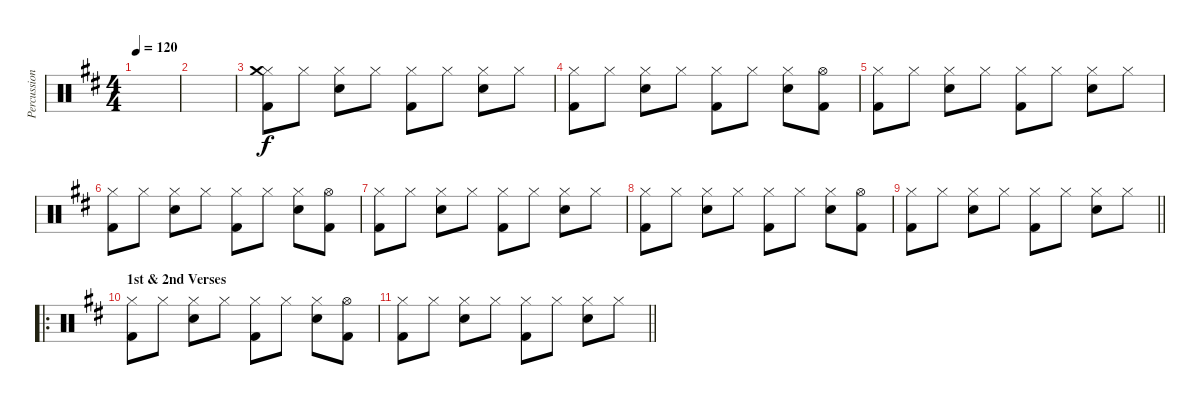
\track ("Percussion" "Percussion") {instrument percussion}
\staff {score}
\articulation defaults
\ts (4 4)
\tempo 120
\clef neutral
\ks d
|
|
("Hi-Hat (closed)" "Crash medium (hit)" "Kick (hit) 2").8 "Hi-Hat (closed)".8 ("Hi-Hat (closed)" "Snare (hit) 2").8 "Hi-Hat (closed)".8 ("Hi-Hat (closed)" "Kick (hit) 2").8 "Hi-Hat (closed)".8 ("Hi-Hat (closed)" "Snare (hit) 2").8 "Hi-Hat (closed)".8 |
("Hi-Hat (closed)" "Kick (hit) 2").8 "Hi-Hat (closed)".8 ("Hi-Hat (closed)" "Snare (hit) 2").8 "Hi-Hat (closed)".8 ("Hi-Hat (closed)" "Kick (hit) 2").8 "Hi-Hat (closed)".8 ("Hi-Hat (closed)" "Snare (hit) 2").8 ("Hi-Hat (open)" "Kick (hit) 2").8 |
("Hi-Hat (closed)" "Kick (hit) 2").8 "Hi-Hat (closed)".8 ("Hi-Hat (closed)" "Snare (hit) 2").8 "Hi-Hat (closed)".8 ("Hi-Hat (closed)" "Kick (hit) 2").8 "Hi-Hat (closed)".8 ("Hi-Hat (closed)" "Snare (hit) 2").8 "Hi-Hat (closed)".8 |
("Hi-Hat (closed)" "Kick (hit) 2").8 "Hi-Hat (closed)".8 ("Hi-Hat (closed)" "Snare (hit) 2").8 "Hi-Hat (closed)".8 ("Hi-Hat (closed)" "Kick (hit) 2").8 "Hi-Hat (closed)".8 ("Hi-Hat (closed)" "Snare (hit) 2").8 ("Hi-Hat (open)" "Kick (hit) 2").8 |
("Hi-Hat (closed)" "Kick (hit) 2").8 "Hi-Hat (closed)".8 ("Hi-Hat (closed)" "Snare (hit) 2").8 "Hi-Hat (closed)".8 ("Hi-Hat (closed)" "Kick (hit) 2").8 "Hi-Hat (closed)".8 ("Hi-Hat (closed)" "Snare (hit) 2").8 "Hi-Hat (closed)".8 |
("Hi-Hat (closed)" "Kick (hit) 2").8 "Hi-Hat (closed)".8 ("Hi-Hat (closed)" "Snare (hit) 2").8 "Hi-Hat (closed)".8 ("Hi-Hat (closed)" "Kick (hit) 2").8 "Hi-Hat (closed)".8 ("Hi-Hat (closed)" "Snare (hit) 2").8 ("Hi-Hat (open)" "Kick (hit) 2").8 |
\barLineRight lightlight
("Hi-Hat (closed)" "Kick (hit) 2").8 "Hi-Hat (closed)".8 ("Hi-Hat (closed)" "Snare (hit) 2").8 "Hi-Hat (closed)".8 ("Hi-Hat (closed)" "Kick (hit) 2").8 "Hi-Hat (closed)".8 ("Hi-Hat (closed)" "Snare (hit) 2").8 "Hi-Hat (closed)".8 |
\ro
\section ("" "1st & 2nd Verses")
("Hi-Hat (closed)" "Kick (hit) 2").8 "Hi-Hat (closed)".8 ("Hi-Hat (closed)" "Snare (hit) 2").8 "Hi-Hat (closed)".8 ("Hi-Hat (closed)" "Kick (hit) 2").8 "Hi-Hat (closed)".8 ("Hi-Hat (closed)" "Snare (hit) 2").8 ("Hi-Hat (open)" "Kick (hit) 2").8 |
\barLineRight lightlight
("Hi-Hat (closed)" "Kick (hit) 2").8 "Hi-Hat (closed)".8 ("Hi-Hat (closed)" "Snare (hit) 2").8 "Hi-Hat (closed)".8 ("Hi-Hat (closed)" "Kick (hit) 2").8 "Hi-Hat (closed)".8 ("Hi-Hat (closed)" "Snare (hit) 2").8 "Hi-Hat (closed)".8
